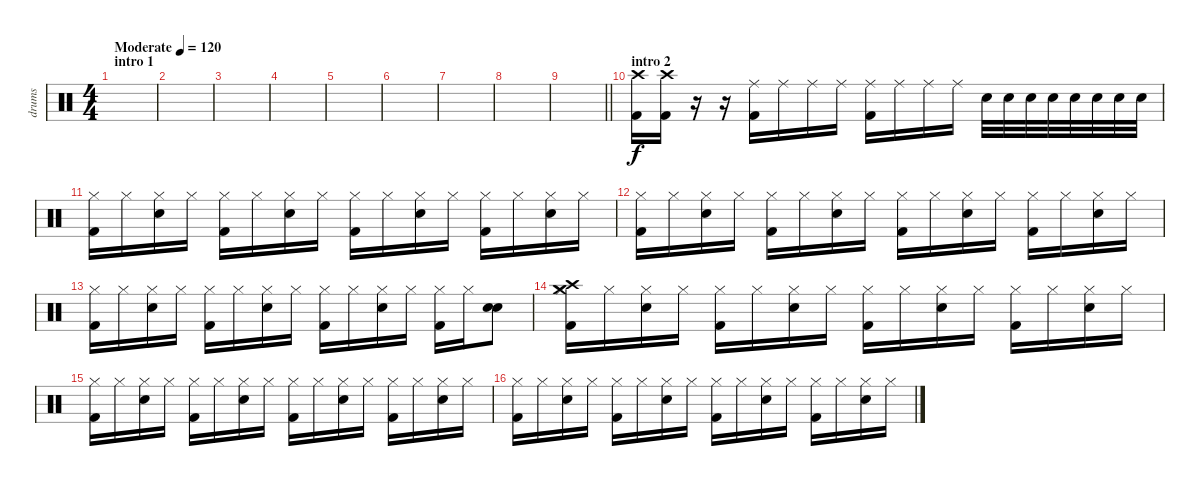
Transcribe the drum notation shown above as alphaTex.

\track ("drums" "drums") {instrument percussion}
\staff {score}
\articulation defaults
\ts (4 4)
\section ("" "intro 1")
\tempo (120 "Moderate")
\clef neutral
\ks c
|
|
|
|
|
|
|
|
\barLineRight lightlight
|
\section ("" "intro 2")
("Kick (hit) 2" "Crash high (hit)").16 ("Kick (hit) 2" "Crash high (hit)").16 r.16 r.16 ("Ride (middle)" "Kick (hit) 2").16 "Ride (middle)".16 "Ride (middle)".16 "Ride (middle)".16 ("Ride (middle)" "Kick (hit) 2").16 "Ride (middle)".16 "Ride (middle)".16 "Ride (middle)".16 "Snare (hit) 2".32 "Snare (hit) 2".32 "Snare (hit) 2".32 "Snare (hit) 2".32 "Snare (hit) 2".32 "Snare (hit) 2".32 "Snare (hit) 2".32 "Snare (hit) 2".32 |
("Hi-Hat (closed)" "Kick (hit) 2").16 "Hi-Hat (closed)".16 ("Hi-Hat (closed)" "Electric Snare (hit)").16 "Hi-Hat (closed)".16 ("Hi-Hat (closed)" "Kick (hit) 2").16 "Hi-Hat (closed)".16 ("Hi-Hat (closed)" "Electric Snare (hit)").16 "Hi-Hat (closed)".16 ("Hi-Hat (closed)" "Kick (hit) 2").16 "Hi-Hat (closed)".16 ("Hi-Hat (closed)" "Electric Snare (hit)").16 "Hi-Hat (closed)".16 ("Hi-Hat (closed)" "Kick (hit) 2").16 "Hi-Hat (closed)".16 ("Hi-Hat (closed)" "Electric Snare (hit)").16 "Hi-Hat (closed)".16 |
("Hi-Hat (closed)" "Kick (hit) 2").16 "Hi-Hat (closed)".16 ("Hi-Hat (closed)" "Electric Snare (hit)").16 "Hi-Hat (closed)".16 ("Hi-Hat (closed)" "Kick (hit) 2").16 "Hi-Hat (closed)".16 ("Hi-Hat (closed)" "Electric Snare (hit)").16 "Hi-Hat (closed)".16 ("Hi-Hat (closed)" "Kick (hit) 2").16 "Hi-Hat (closed)".16 ("Hi-Hat (closed)" "Electric Snare (hit)").16 "Hi-Hat (closed)".16 ("Hi-Hat (closed)" "Kick (hit) 2").16 "Hi-Hat (closed)".16 ("Hi-Hat (closed)" "Electric Snare (hit)").16 "Hi-Hat (closed)".16 |
("Hi-Hat (closed)" "Kick (hit) 2").16 "Hi-Hat (closed)".16 ("Hi-Hat (closed)" "Electric Snare (hit)").16 "Hi-Hat (closed)".16 ("Hi-Hat (closed)" "Kick (hit) 2").16 "Hi-Hat (closed)".16 ("Hi-Hat (closed)" "Electric Snare (hit)").16 "Hi-Hat (closed)".16 ("Hi-Hat (closed)" "Kick (hit) 2").16 "Hi-Hat (closed)".16 ("Hi-Hat (closed)" "Electric Snare (hit)").16 "Hi-Hat (closed)".16 ("Hi-Hat (closed)" "Kick (hit) 2").16 "Hi-Hat (closed)".16 ("Electric Snare (hit)" "Electric Snare (hit)").8 |
("Crash medium (hit)" "Hi-Hat (closed)" "Crash high (hit)" "Kick (hit) 2").16 "Hi-Hat (closed)".16 ("Hi-Hat (closed)" "Electric Snare (hit)").16 "Hi-Hat (closed)".16 ("Hi-Hat (closed)" "Kick (hit) 2").16 "Hi-Hat (closed)".16 ("Hi-Hat (closed)" "Electric Snare (hit)").16 "Hi-Hat (closed)".16 ("Hi-Hat (closed)" "Kick (hit) 2").16 "Hi-Hat (closed)".16 ("Hi-Hat (closed)" "Electric Snare (hit)").16 "Hi-Hat (closed)".16 ("Hi-Hat (closed)" "Kick (hit) 2").16 "Hi-Hat (closed)".16 ("Hi-Hat (closed)" "Electric Snare (hit)").16 "Hi-Hat (closed)".16 |
("Hi-Hat (closed)" "Kick (hit) 2").16 "Hi-Hat (closed)".16 ("Hi-Hat (closed)" "Electric Snare (hit)").16 "Hi-Hat (closed)".16 ("Hi-Hat (closed)" "Kick (hit) 2").16 "Hi-Hat (closed)".16 ("Hi-Hat (closed)" "Electric Snare (hit)").16 "Hi-Hat (closed)".16 ("Hi-Hat (closed)" "Kick (hit) 2").16 "Hi-Hat (closed)".16 ("Hi-Hat (closed)" "Electric Snare (hit)").16 "Hi-Hat (closed)".16 ("Hi-Hat (closed)" "Kick (hit) 2").16 "Hi-Hat (closed)".16 ("Hi-Hat (closed)" "Electric Snare (hit)").16 "Hi-Hat (closed)".16 |
("Hi-Hat (closed)" "Kick (hit) 2").16 "Hi-Hat (closed)".16 ("Hi-Hat (closed)" "Electric Snare (hit)").16 "Hi-Hat (closed)".16 ("Hi-Hat (closed)" "Kick (hit) 2").16 "Hi-Hat (closed)".16 ("Hi-Hat (closed)" "Electric Snare (hit)").16 "Hi-Hat (closed)".16 ("Hi-Hat (closed)" "Kick (hit) 2").16 "Hi-Hat (closed)".16 ("Hi-Hat (closed)" "Electric Snare (hit)").16 "Hi-Hat (closed)".16 ("Hi-Hat (closed)" "Kick (hit) 2").16 "Hi-Hat (closed)".16 ("Hi-Hat (closed)" "Electric Snare (hit)").16 "Hi-Hat (closed)".16
